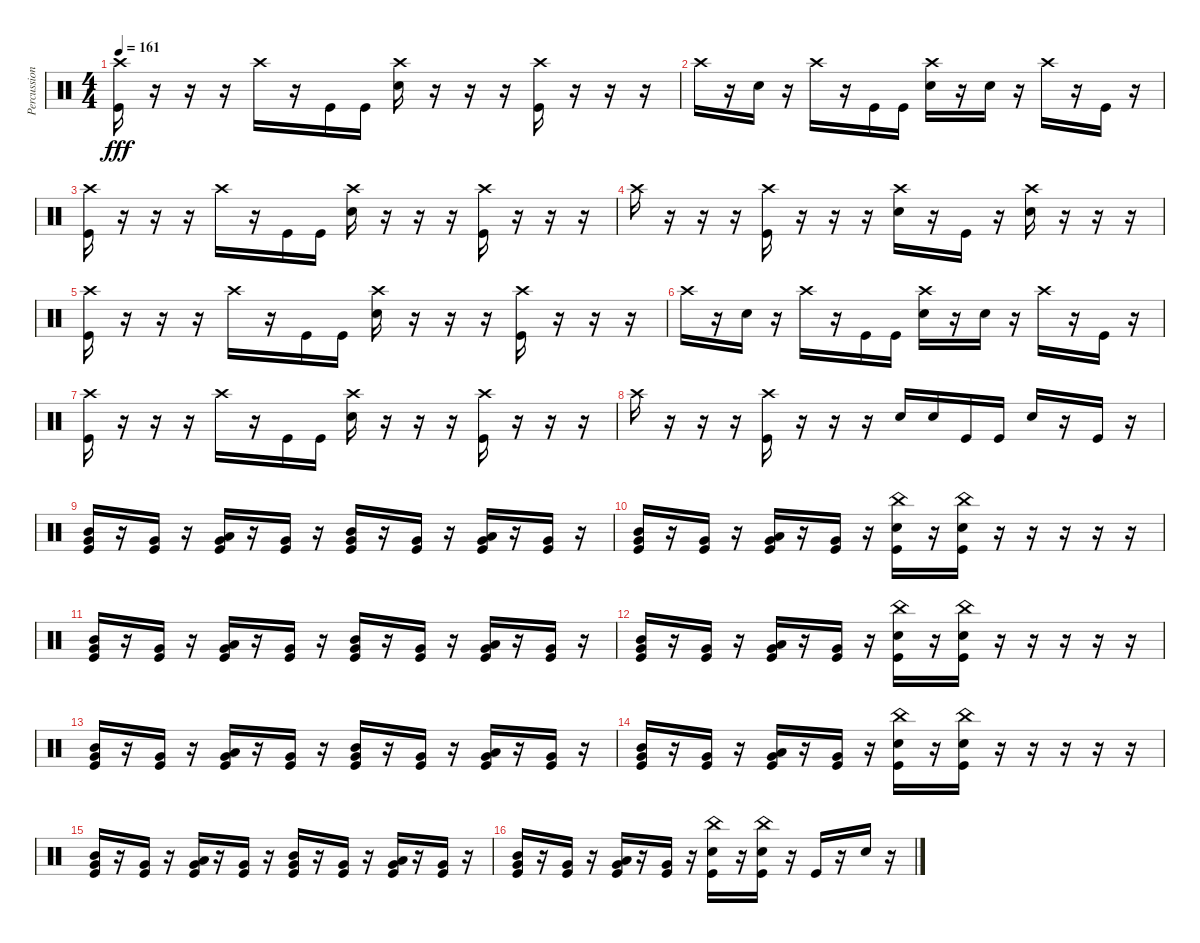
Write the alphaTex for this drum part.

\track ("Percussion" "Percussion") {instrument percussion}
\staff {score}
\articulation defaults
\ts (4 4)
\tempo 161
\clef neutral
\ks c
("Crash high (hit)" "Kick (hit)").16{dy fff} r.16 r.16 r.16 "Crash high (hit)".16 r.16 "Kick (hit)".16 "Kick (hit)".16 ("Crash high (hit)" "Electric Snare (hit)").16 r.16 r.16 r.16 ("Crash high (hit)" "Kick (hit)").16 r.16 r.16 r.16 |
"Crash high (hit)".16 r.16 "Electric Snare (hit)".16 r.16 "Crash high (hit)".16 r.16 "Kick (hit)".16 "Kick (hit)".16 ("Crash high (hit)" "Electric Snare (hit)").16 r.16 "Electric Snare (hit)".16 r.16 "Crash high (hit)".16 r.16 "Kick (hit)".16 r.16 |
("Crash high (hit)" "Kick (hit)").16 r.16 r.16 r.16 "Crash high (hit)".16 r.16 "Kick (hit)".16 "Kick (hit)".16 ("Crash high (hit)" "Electric Snare (hit)").16 r.16 r.16 r.16 ("Crash high (hit)" "Kick (hit)").16 r.16 r.16 r.16 |
"Crash high (hit)".16 r.16 r.16 r.16 ("Crash high (hit)" "Kick (hit)").16 r.16 r.16 r.16 ("Crash high (hit)" "Electric Snare (hit)").16 r.16 "Kick (hit)".16 r.16 ("Crash high (hit)" "Electric Snare (hit)").16 r.16 r.16 r.16 |
("Crash high (hit)" "Kick (hit)").16 r.16 r.16 r.16 "Crash high (hit)".16 r.16 "Kick (hit)".16 "Kick (hit)".16 ("Crash high (hit)" "Electric Snare (hit)").16 r.16 r.16 r.16 ("Crash high (hit)" "Kick (hit)").16 r.16 r.16 r.16 |
"Crash high (hit)".16 r.16 "Electric Snare (hit)".16 r.16 "Crash high (hit)".16 r.16 "Kick (hit)".16 "Kick (hit)".16 ("Crash high (hit)" "Electric Snare (hit)").16 r.16 "Electric Snare (hit)".16 r.16 "Crash high (hit)".16 r.16 "Kick (hit)".16 r.16 |
("Crash high (hit)" "Kick (hit)").16 r.16 r.16 r.16 "Crash high (hit)".16 r.16 "Kick (hit)".16 "Kick (hit)".16 ("Crash high (hit)" "Electric Snare (hit)").16 r.16 r.16 r.16 ("Crash high (hit)" "Kick (hit)").16 r.16 r.16 r.16 |
"Crash high (hit)".16 r.16 r.16 r.16 ("Crash high (hit)" "Kick (hit)").16 r.16 r.16 r.16 "Electric Snare (hit)".16 "Electric Snare (hit)".16 "Kick (hit)".16 "Kick (hit)".16 "Electric Snare (hit)".16 r.16 "Kick (hit)".16 r.16 |
("Very Low Tom (hit)" "Mid Tom (hit)" "Kick (hit)").16 r.16 ("Very Low Tom (hit)" "Kick (hit)").16 r.16 ("Very Low Tom (hit)" "Low Tom (hit)" "Kick (hit)").16 r.16 ("Very Low Tom (hit)" "Kick (hit)").16 r.16 ("Very Low Tom (hit)" "Mid Tom (hit)" "Kick (hit)").16 r.16 ("Very Low Tom (hit)" "Kick (hit)").16 r.16 ("Very Low Tom (hit)" "Low Tom (hit)" "Kick (hit)").16 r.16 ("Very Low Tom (hit)" "Kick (hit)").16 r.16 |
("Very Low Tom (hit)" "Mid Tom (hit)" "Kick (hit)").16 r.16 ("Very Low Tom (hit)" "Kick (hit)").16 r.16 ("Very Low Tom (hit)" "Low Tom (hit)" "Kick (hit)").16 r.16 ("Very Low Tom (hit)" "Kick (hit)").16 r.16 ("China (hit)" "Electric Snare (hit)" "Kick (hit)").16 r.16 ("China (hit)" "Electric Snare (hit)" "Kick (hit)").16 r.16 r.16 r.16 r.16 r.16 |
("Very Low Tom (hit)" "Mid Tom (hit)" "Kick (hit)").16 r.16 ("Very Low Tom (hit)" "Kick (hit)").16 r.16 ("Very Low Tom (hit)" "Low Tom (hit)" "Kick (hit)").16 r.16 ("Very Low Tom (hit)" "Kick (hit)").16 r.16 ("Very Low Tom (hit)" "Mid Tom (hit)" "Kick (hit)").16 r.16 ("Very Low Tom (hit)" "Kick (hit)").16 r.16 ("Very Low Tom (hit)" "Low Tom (hit)" "Kick (hit)").16 r.16 ("Very Low Tom (hit)" "Kick (hit)").16 r.16 |
("Very Low Tom (hit)" "Mid Tom (hit)" "Kick (hit)").16 r.16 ("Very Low Tom (hit)" "Kick (hit)").16 r.16 ("Very Low Tom (hit)" "Low Tom (hit)" "Kick (hit)").16 r.16 ("Very Low Tom (hit)" "Kick (hit)").16 r.16 ("China (hit)" "Electric Snare (hit)" "Kick (hit)").16 r.16 ("China (hit)" "Electric Snare (hit)" "Kick (hit)").16 r.16 r.16 r.16 r.16 r.16 |
("Very Low Tom (hit)" "Mid Tom (hit)" "Kick (hit)").16 r.16 ("Very Low Tom (hit)" "Kick (hit)").16 r.16 ("Very Low Tom (hit)" "Low Tom (hit)" "Kick (hit)").16 r.16 ("Very Low Tom (hit)" "Kick (hit)").16 r.16 ("Very Low Tom (hit)" "Mid Tom (hit)" "Kick (hit)").16 r.16 ("Very Low Tom (hit)" "Kick (hit)").16 r.16 ("Very Low Tom (hit)" "Low Tom (hit)" "Kick (hit)").16 r.16 ("Very Low Tom (hit)" "Kick (hit)").16 r.16 |
("Very Low Tom (hit)" "Mid Tom (hit)" "Kick (hit)").16 r.16 ("Very Low Tom (hit)" "Kick (hit)").16 r.16 ("Very Low Tom (hit)" "Low Tom (hit)" "Kick (hit)").16 r.16 ("Very Low Tom (hit)" "Kick (hit)").16 r.16 ("China (hit)" "Electric Snare (hit)" "Kick (hit)").16 r.16 ("China (hit)" "Electric Snare (hit)" "Kick (hit)").16 r.16 r.16 r.16 r.16 r.16 |
("Very Low Tom (hit)" "Mid Tom (hit)" "Kick (hit)").16 r.16 ("Very Low Tom (hit)" "Kick (hit)").16 r.16 ("Very Low Tom (hit)" "Low Tom (hit)" "Kick (hit)").16 r.16 ("Very Low Tom (hit)" "Kick (hit)").16 r.16 ("Very Low Tom (hit)" "Mid Tom (hit)" "Kick (hit)").16 r.16 ("Very Low Tom (hit)" "Kick (hit)").16 r.16 ("Very Low Tom (hit)" "Low Tom (hit)" "Kick (hit)").16 r.16 ("Very Low Tom (hit)" "Kick (hit)").16 r.16 |
("Very Low Tom (hit)" "Mid Tom (hit)" "Kick (hit)").16 r.16 ("Very Low Tom (hit)" "Kick (hit)").16 r.16 ("Very Low Tom (hit)" "Low Tom (hit)" "Kick (hit)").16 r.16 ("Very Low Tom (hit)" "Kick (hit)").16 r.16 ("China (hit)" "Electric Snare (hit)" "Kick (hit)").16 r.16 ("China (hit)" "Electric Snare (hit)" "Kick (hit)").16 r.16 "Kick (hit)".16 r.16 "Electric Snare (hit)".16 r.16
